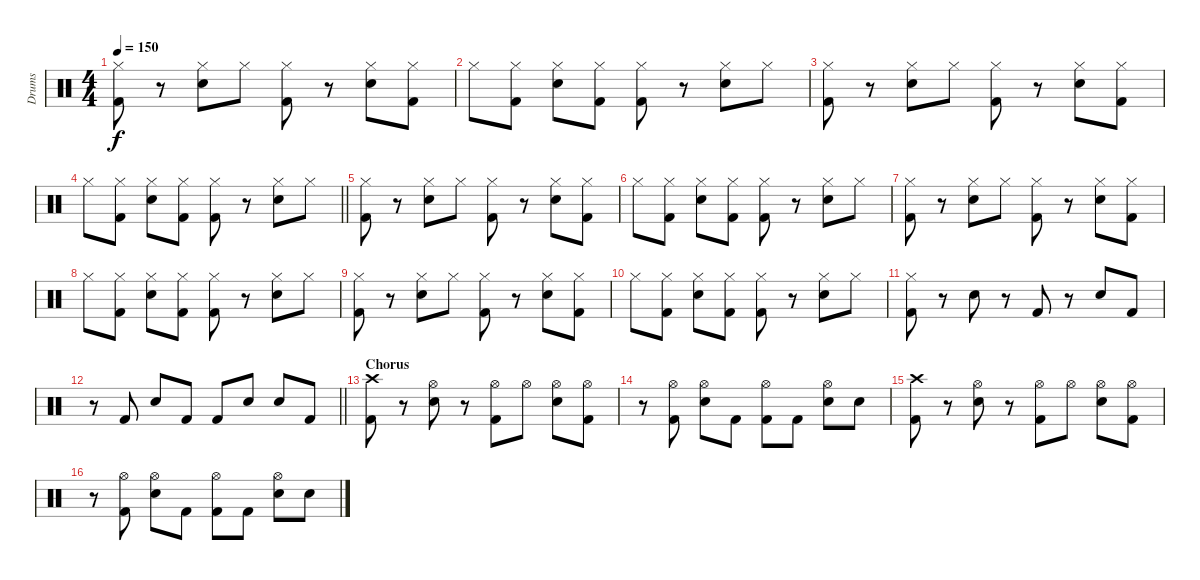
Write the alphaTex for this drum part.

\track ("Drums" "Drums") {instrument percussion}
\staff {score}
\articulation defaults
\ts (4 4)
\tempo 150
\clef neutral
\ks c
("Hi-Hat (closed)" "Kick (hit) 2").8{dy f} r.8 ("Snare (hit) 2" "Hi-Hat (closed)").8 "Hi-Hat (closed)".8 ("Hi-Hat (closed)" "Kick (hit) 2").8 r.8 ("Snare (hit) 2" "Hi-Hat (closed)").8 ("Hi-Hat (closed)" "Kick (hit) 2").8 |
"Hi-Hat (closed)".8 ("Hi-Hat (closed)" "Kick (hit) 2").8 ("Snare (hit) 2" "Hi-Hat (closed)").8 ("Hi-Hat (closed)" "Kick (hit) 2").8 ("Hi-Hat (closed)" "Kick (hit) 2").8 r.8 ("Snare (hit) 2" "Hi-Hat (closed)").8 "Hi-Hat (closed)".8 |
("Hi-Hat (closed)" "Kick (hit) 2").8 r.8 ("Snare (hit) 2" "Hi-Hat (closed)").8 "Hi-Hat (closed)".8 ("Hi-Hat (closed)" "Kick (hit) 2").8 r.8 ("Snare (hit) 2" "Hi-Hat (closed)").8 ("Hi-Hat (closed)" "Kick (hit) 2").8 |
\barLineRight lightlight "Hi-Hat (closed)".8
("Hi-Hat (closed)" "Kick (hit) 2").8 ("Snare (hit) 2" "Hi-Hat (closed)").8 ("Hi-Hat (closed)" "Kick (hit) 2").8 ("Hi-Hat (closed)" "Kick (hit) 2").8 r.8 ("Snare (hit) 2" "Hi-Hat (closed)").8 "Hi-Hat (closed)".8 |
("Hi-Hat (closed)" "Kick (hit) 2").8 r.8 ("Snare (hit) 2" "Hi-Hat (closed)").8 "Hi-Hat (closed)".8 ("Hi-Hat (closed)" "Kick (hit) 2").8 r.8 ("Snare (hit) 2" "Hi-Hat (closed)").8 ("Hi-Hat (closed)" "Kick (hit) 2").8 |
"Hi-Hat (closed)".8 ("Hi-Hat (closed)" "Kick (hit) 2").8 ("Snare (hit) 2" "Hi-Hat (closed)").8 ("Hi-Hat (closed)" "Kick (hit) 2").8 ("Hi-Hat (closed)" "Kick (hit) 2").8 r.8 ("Snare (hit) 2" "Hi-Hat (closed)").8 "Hi-Hat (closed)".8 |
("Hi-Hat (closed)" "Kick (hit) 2").8 r.8 ("Snare (hit) 2" "Hi-Hat (closed)").8 "Hi-Hat (closed)".8 ("Hi-Hat (closed)" "Kick (hit) 2").8 r.8 ("Snare (hit) 2" "Hi-Hat (closed)").8 ("Hi-Hat (closed)" "Kick (hit) 2").8 |
"Hi-Hat (closed)".8 ("Hi-Hat (closed)" "Kick (hit) 2").8 ("Snare (hit) 2" "Hi-Hat (closed)").8 ("Hi-Hat (closed)" "Kick (hit) 2").8 ("Hi-Hat (closed)" "Kick (hit) 2").8 r.8 ("Snare (hit) 2" "Hi-Hat (closed)").8 "Hi-Hat (closed)".8 |
("Hi-Hat (closed)" "Kick (hit) 2").8 r.8 ("Snare (hit) 2" "Hi-Hat (closed)").8 "Hi-Hat (closed)".8 ("Hi-Hat (closed)" "Kick (hit) 2").8 r.8 ("Snare (hit) 2" "Hi-Hat (closed)").8 ("Hi-Hat (closed)" "Kick (hit) 2").8 |
"Hi-Hat (closed)".8 ("Hi-Hat (closed)" "Kick (hit) 2").8 ("Snare (hit) 2" "Hi-Hat (closed)").8 ("Hi-Hat (closed)" "Kick (hit) 2").8 ("Hi-Hat (closed)" "Kick (hit) 2").8 r.8 ("Snare (hit) 2" "Hi-Hat (closed)").8 "Hi-Hat (closed)".8 |
("Hi-Hat (closed)" "Kick (hit) 2").8 r.8 "Snare (hit) 2".8 r.8 "Kick (hit) 2".8 r.8 "Snare (hit) 2".8 "Kick (hit) 2".8 |
\barLineRight lightlight
r.8 "Kick (hit) 2".8 "Snare (hit) 2".8 "Kick (hit) 2".8 "Kick (hit) 2".8 "Snare (hit) 2".8 "Snare (hit) 2".8 "Kick (hit) 2".8 |
\section ("" "Chorus")
("Crash high (hit)" "Kick (hit) 2").8 r.8 ("Snare (hit) 2" "Hi-Hat (open)").8 r.8 ("Hi-Hat (open)" "Kick (hit) 2").8 "Hi-Hat (open)".8 ("Snare (hit) 2" "Hi-Hat (open)").8 ("Hi-Hat (open)" "Kick (hit) 2").8 |
r.8 ("Hi-Hat (open)" "Kick (hit) 2").8 ("Snare (hit) 2" "Hi-Hat (open)").8 "Kick (hit) 2".8 ("Hi-Hat (open)" "Kick (hit) 2").8 "Kick (hit) 2".8 ("Snare (hit) 2" "Hi-Hat (open)").8 "Snare (hit) 2".8 |
("Crash high (hit)" "Kick (hit) 2").8 r.8 ("Snare (hit) 2" "Hi-Hat (open)").8 r.8 ("Hi-Hat (open)" "Kick (hit) 2").8 "Hi-Hat (open)".8 ("Snare (hit) 2" "Hi-Hat (open)").8 ("Hi-Hat (open)" "Kick (hit) 2").8 |
r.8 ("Hi-Hat (open)" "Kick (hit) 2").8 ("Snare (hit) 2" "Hi-Hat (open)").8 "Kick (hit) 2".8 ("Hi-Hat (open)" "Kick (hit) 2").8 "Kick (hit) 2".8 ("Snare (hit) 2" "Hi-Hat (open)").8 "Snare (hit) 2".8
